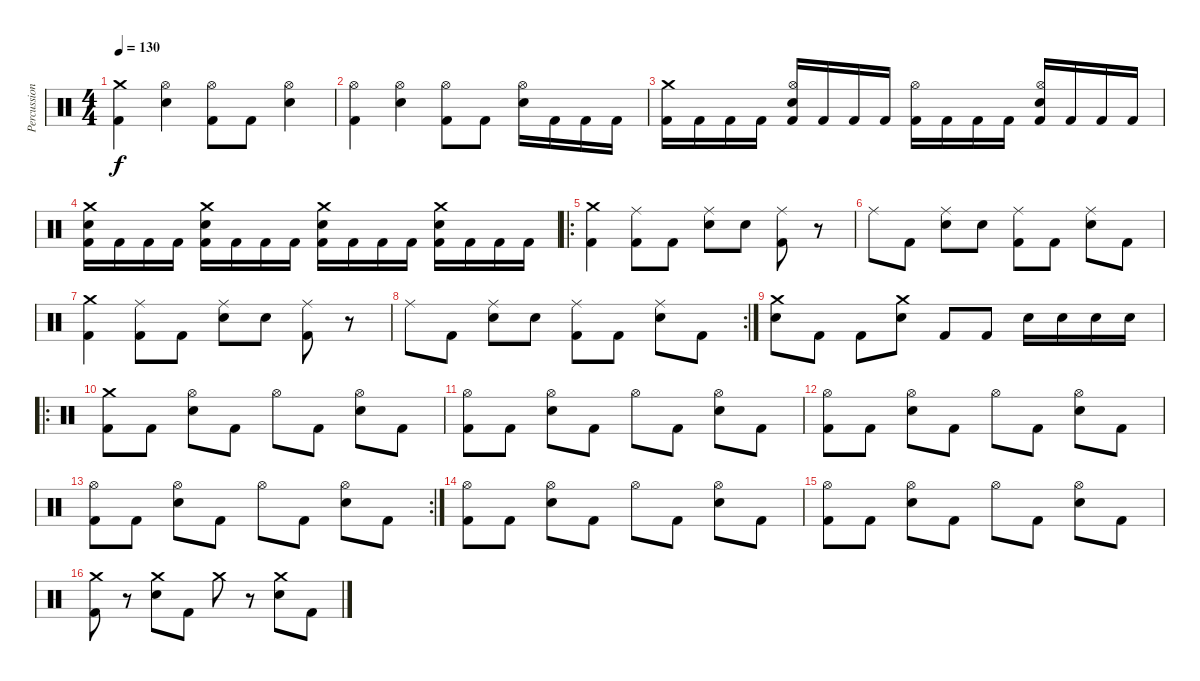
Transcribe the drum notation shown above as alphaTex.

\track ("Percussion" "Percussion") {instrument percussion}
\staff {score}
\articulation defaults
\ts (4 4)
\tempo 130
\clef neutral
\ks c
("Crash medium (hit)" "Kick (hit) 2").4{dy f} ("Hi-Hat (open)" "Electric Snare (hit)").4 ("Hi-Hat (open)" "Kick (hit) 2").8 "Kick (hit) 2".8 ("Hi-Hat (open)" "Electric Snare (hit)").4 |
("Hi-Hat (open)" "Kick (hit) 2").4 ("Hi-Hat (open)" "Electric Snare (hit)").4 ("Hi-Hat (open)" "Kick (hit) 2").8 "Kick (hit) 2".8 ("Hi-Hat (open)" "Electric Snare (hit)").16 "Kick (hit) 2".16 "Kick (hit) 2".16 "Kick (hit) 2".16 |
("Crash medium (hit)" "Kick (hit) 2").16 "Kick (hit) 2".16 "Kick (hit) 2".16 "Kick (hit) 2".16 ("Hi-Hat (open)" "Electric Snare (hit)" "Kick (hit) 2").16 "Kick (hit) 2".16 "Kick (hit) 2".16 "Kick (hit) 2".16 ("Hi-Hat (open)" "Kick (hit) 2").16 "Kick (hit) 2".16 "Kick (hit) 2".16 "Kick (hit) 2".16 ("Hi-Hat (open)" "Electric Snare (hit)" "Kick (hit) 2").16 "Kick (hit) 2".16 "Kick (hit) 2".16 "Kick (hit) 2".16 |
("Crash medium (hit)" "Electric Snare (hit)" "Kick (hit) 2").16 "Kick (hit) 2".16 "Kick (hit) 2".16 "Kick (hit) 2".16 ("Crash medium (hit)" "Electric Snare (hit)" "Kick (hit) 2").16 "Kick (hit) 2".16 "Kick (hit) 2".16 "Kick (hit) 2".16 ("Crash medium (hit)" "Electric Snare (hit)" "Kick (hit) 2").16 "Kick (hit) 2".16 "Kick (hit) 2".16 "Kick (hit) 2".16 ("Crash medium (hit)" "Electric Snare (hit)" "Kick (hit) 2").16 "Kick (hit) 2".16 "Kick (hit) 2".16 "Kick (hit) 2".16 |
\ro
("Crash medium (hit)" "Kick (hit) 2").4 ("Ride (middle)" "Kick (hit) 2").8 "Kick (hit) 2".8 ("Ride (middle)" "Electric Snare (hit)").8 "Electric Snare (hit)".8 ("Ride (middle)" "Kick (hit) 2").8 r.8 |
"Ride (middle)".8 "Kick (hit) 2".8 ("Ride (middle)" "Electric Snare (hit)").8 "Electric Snare (hit)".8 ("Ride (middle)" "Kick (hit) 2").8 "Kick (hit) 2".8 ("Ride (middle)" "Electric Snare (hit)").8 "Kick (hit) 2".8 |
("Crash medium (hit)" "Kick (hit) 2").4 ("Ride (middle)" "Kick (hit) 2").8 "Kick (hit) 2".8 ("Ride (middle)" "Electric Snare (hit)").8 "Electric Snare (hit)".8 ("Ride (middle)" "Kick (hit) 2").8 r.8 |
\rc 2 "Ride (middle)".8 "Kick (hit) 2".8
("Ride (middle)" "Electric Snare (hit)").8 "Electric Snare (hit)".8 ("Ride (middle)" "Kick (hit) 2").8 "Kick (hit) 2".8 ("Ride (middle)" "Electric Snare (hit)").8 "Kick (hit) 2".8 |
("Crash medium (hit)" "Electric Snare (hit)").8 "Kick (hit) 2".8 "Kick (hit) 2".8 ("Crash medium (hit)" "Electric Snare (hit)").8 "Kick (hit) 2".8 "Kick (hit) 2".8 "Electric Snare (hit)".16 "Electric Snare (hit)".16 "Electric Snare (hit)".16 "Electric Snare (hit)".16 |
\ro
("Crash medium (hit)" "Kick (hit) 2").8 "Kick (hit) 2".8 ("Hi-Hat (open)" "Electric Snare (hit)").8 "Kick (hit) 2".8 "Hi-Hat (open)".8 "Kick (hit) 2".8 ("Hi-Hat (open)" "Electric Snare (hit)").8 "Kick (hit) 2".8 |
("Hi-Hat (open)" "Kick (hit) 2").8 "Kick (hit) 2".8 ("Hi-Hat (open)" "Electric Snare (hit)").8 "Kick (hit) 2".8 "Hi-Hat (open)".8 "Kick (hit) 2".8 ("Hi-Hat (open)" "Electric Snare (hit)").8 "Kick (hit) 2".8 |
("Hi-Hat (open)" "Kick (hit) 2").8 "Kick (hit) 2".8 ("Hi-Hat (open)" "Electric Snare (hit)").8 "Kick (hit) 2".8 "Hi-Hat (open)".8 "Kick (hit) 2".8 ("Hi-Hat (open)" "Electric Snare (hit)").8 "Kick (hit) 2".8 |
\rc 2
("Hi-Hat (open)" "Kick (hit) 2").8 "Kick (hit) 2".8 ("Hi-Hat (open)" "Electric Snare (hit)").8 "Kick (hit) 2".8 "Hi-Hat (open)".8 "Kick (hit) 2".8 ("Hi-Hat (open)" "Electric Snare (hit)").8 "Kick (hit) 2".8 |
("Hi-Hat (open)" "Kick (hit) 2").8 "Kick (hit) 2".8 ("Hi-Hat (open)" "Electric Snare (hit)").8 "Kick (hit) 2".8 "Hi-Hat (open)".8 "Kick (hit) 2".8 ("Hi-Hat (open)" "Electric Snare (hit)").8 "Kick (hit) 2".8 |
("Hi-Hat (open)" "Kick (hit) 2").8 "Kick (hit) 2".8 ("Hi-Hat (open)" "Electric Snare (hit)").8 "Kick (hit) 2".8 "Hi-Hat (open)".8 "Kick (hit) 2".8 ("Hi-Hat (open)" "Electric Snare (hit)").8 "Kick (hit) 2".8 |
("Crash medium (hit)" "Kick (hit) 2").8 r.8 ("Crash medium (hit)" "Electric Snare (hit)").8 "Kick (hit) 2".8 "Crash medium (hit)".8 r.8 ("Crash medium (hit)" "Electric Snare (hit)").8 "Kick (hit) 2".8
